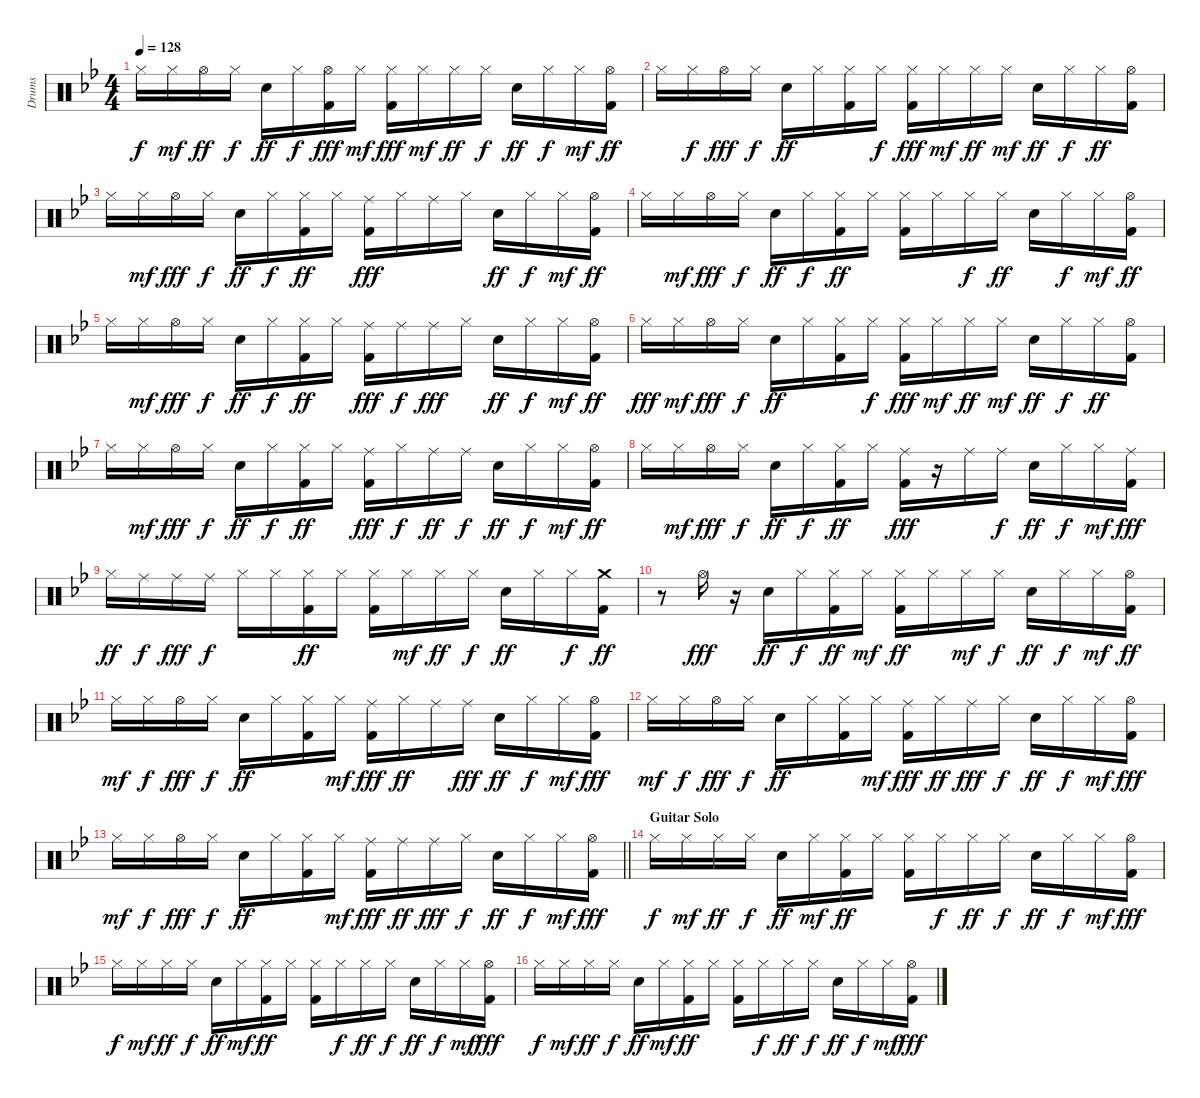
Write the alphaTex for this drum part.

\track ("Drums" "Drums") {instrument percussion}
\staff {score}
\articulation defaults
\ts (4 4)
\tempo 128
\clef neutral
\ks gminor "Hi-Hat (closed)".16{dy f} "Hi-Hat (closed)".16{dy mf} "Hi-Hat (open)".16{dy ff} "Hi-Hat (closed)".16{dy f} "Snare (hit) 2".16{dy ff} "Hi-Hat (closed)".16{dy f}
("Kick (hit) 2" "Hi-Hat (open)").16{dy fff} "Hi-Hat (closed)".16{dy mf} ("Hi-Hat (closed)" "Kick (hit) 2").16{dy fff} "Hi-Hat (closed)".16{dy mf} "Hi-Hat (closed)".16{dy ff} "Hi-Hat (closed)".16{dy f} "Snare (hit) 2".16{dy ff} "Hi-Hat (closed)".16{dy f} "Hi-Hat (closed)".16{dy mf} ("Hi-Hat (open)" "Kick (hit) 2").16{dy ff} |
"Hi-Hat (closed)".16 "Hi-Hat (closed)".16{dy f} "Hi-Hat (open)".16{dy fff} "Hi-Hat (closed)".16{dy f} "Snare (hit) 2".16{dy ff} "Hi-Hat (closed)".16 ("Hi-Hat (closed)" "Kick (hit) 2").16 "Hi-Hat (closed)".16{dy f} ("Hi-Hat (closed)" "Kick (hit) 2").16{dy fff} "Hi-Hat (closed)".16{dy mf} "Hi-Hat (closed)".16{dy ff} "Hi-Hat (closed)".16{dy mf} "Snare (hit) 2".16{dy ff} "Hi-Hat (closed)".16{dy f} "Hi-Hat (closed)".16{dy ff} ("Hi-Hat (open)" "Kick (hit) 2").16 |
"Hi-Hat (closed)".16 "Hi-Hat (closed)".16{dy mf} "Hi-Hat (open)".16{dy fff} "Hi-Hat (closed)".16{dy f} "Snare (hit) 2".16{dy ff} "Hi-Hat (closed)".16{dy f} ("Hi-Hat (closed)" "Kick (hit) 2").16{dy ff} "Hi-Hat (closed)".16 ("Kick (hit) 2" "Ride (middle)").16{dy fff} "Hi-Hat (closed)".16 "Ride (middle)".16 "Hi-Hat (closed)".16 "Snare (hit) 2".16{dy ff} "Hi-Hat (closed)".16{dy f} "Hi-Hat (closed)".16{dy mf} ("Hi-Hat (open)" "Kick (hit) 2").16{dy ff} |
"Hi-Hat (closed)".16 "Hi-Hat (closed)".16{dy mf} "Hi-Hat (open)".16{dy fff} "Hi-Hat (closed)".16{dy f} "Snare (hit) 2".16{dy ff} "Hi-Hat (closed)".16{dy f} ("Hi-Hat (closed)" "Kick (hit) 2").16{dy ff} "Hi-Hat (closed)".16 ("Kick (hit) 2" "Hi-Hat (closed)").16 "Hi-Hat (closed)".16 "Hi-Hat (closed)".16{dy f} "Hi-Hat (closed)".16{dy ff} "Snare (hit) 2".16 "Hi-Hat (closed)".16{dy f} "Hi-Hat (closed)".16{dy mf} ("Hi-Hat (open)" "Kick (hit) 2").16{dy ff} |
"Hi-Hat (closed)".16 "Hi-Hat (closed)".16{dy mf} "Hi-Hat (open)".16{dy fff} "Hi-Hat (closed)".16{dy f} "Snare (hit) 2".16{dy ff} "Hi-Hat (closed)".16{dy f} ("Hi-Hat (closed)" "Kick (hit) 2").16{dy ff} "Hi-Hat (closed)".16 ("Kick (hit) 2" "Ride (middle)").16{dy fff} "Ride (middle)".16{dy f} "Ride (middle)".16{dy fff} "Hi-Hat (closed)".16 "Snare (hit) 2".16{dy ff} "Hi-Hat (closed)".16{dy f} "Hi-Hat (closed)".16{dy mf} ("Hi-Hat (open)" "Kick (hit) 2").16{dy ff} |
"Hi-Hat (closed)".16{dy fff} "Hi-Hat (closed)".16{dy mf} "Hi-Hat (open)".16{dy fff} "Hi-Hat (closed)".16{dy f} "Snare (hit) 2".16{dy ff} "Hi-Hat (closed)".16 ("Hi-Hat (closed)" "Kick (hit) 2").16 "Hi-Hat (closed)".16{dy f} ("Kick (hit) 2" "Hi-Hat (closed)").16{dy fff} "Hi-Hat (closed)".16{dy mf} "Hi-Hat (closed)".16{dy ff} "Hi-Hat (closed)".16{dy mf} "Snare (hit) 2".16{dy ff} "Hi-Hat (closed)".16{dy f} "Hi-Hat (closed)".16{dy ff} ("Hi-Hat (open)" "Kick (hit) 2").16 |
"Hi-Hat (closed)".16 "Hi-Hat (closed)".16{dy mf} "Hi-Hat (open)".16{dy fff} "Hi-Hat (closed)".16{dy f} "Snare (hit) 2".16{dy ff} "Hi-Hat (closed)".16{dy f} ("Hi-Hat (closed)" "Kick (hit) 2").16{dy ff} "Hi-Hat (closed)".16 ("Kick (hit) 2" "Ride (middle)").16{dy fff} "Hi-Hat (closed)".16{dy f} "Ride (middle)".16{dy ff} "Ride (middle)".16{dy f} "Snare (hit) 2".16{dy ff} "Hi-Hat (closed)".16{dy f} "Hi-Hat (closed)".16{dy mf} ("Hi-Hat (open)" "Kick (hit) 2").16{dy ff} |
"Hi-Hat (closed)".16 "Hi-Hat (closed)".16{dy mf} "Hi-Hat (open)".16{dy fff} "Hi-Hat (closed)".16{dy f} "Snare (hit) 2".16{dy ff} "Hi-Hat (closed)".16{dy f} ("Hi-Hat (closed)" "Kick (hit) 2").16{dy ff} "Hi-Hat (closed)".16 ("Kick (hit) 2" "Ride (middle)").16{dy fff} r.16 "Ride (middle)".16 "Ride (middle)".16{dy f} "Snare (hit) 2".16{dy ff} "Hi-Hat (closed)".16{dy f} "Hi-Hat (closed)".16{dy mf} ("Kick (hit) 2" "Ride (middle)").16{dy fff} |
"Hi-Hat (closed)".16{dy ff} "Ride (middle)".16{dy f} "Ride (middle)".16{dy fff} "Ride (middle)".16{dy f} "Hi-Hat (closed)".16 "Hi-Hat (closed)".16 ("Hi-Hat (closed)" "Kick (hit) 2").16{dy ff} "Hi-Hat (closed)".16 ("Kick (hit) 2" "Hi-Hat (closed)").16 "Hi-Hat (closed)".16{dy mf} "Hi-Hat (closed)".16{dy ff} "Hi-Hat (closed)".16{dy f} "Snare (hit) 2".16{dy ff} "Hi-Hat (closed)".16 "Hi-Hat (closed)".16{dy f} ("Crash medium (hit)" "Kick (hit) 2").16{dy ff} |
r.8 "Hi-Hat (open)".16{dy fff} r.16 "Snare (hit) 2".16{dy ff} "Hi-Hat (closed)".16{dy f} ("Kick (hit) 2" "Hi-Hat (closed)").16{dy ff} "Hi-Hat (closed)".16{dy mf} ("Kick (hit) 2" "Hi-Hat (closed)").16{dy ff} "Hi-Hat (closed)".16 "Hi-Hat (closed)".16{dy mf} "Hi-Hat (closed)".16{dy f} "Snare (hit) 2".16{dy ff} "Hi-Hat (closed)".16{dy f} "Hi-Hat (closed)".16{dy mf} ("Hi-Hat (open)" "Kick (hit) 2").16{dy ff} |
"Hi-Hat (closed)".16{dy mf} "Hi-Hat (closed)".16{dy f} "Hi-Hat (open)".16{dy fff} "Hi-Hat (closed)".16{dy f} "Snare (hit) 2".16{dy ff} "Hi-Hat (closed)".16 ("Kick (hit) 2" "Hi-Hat (closed)").16 "Hi-Hat (closed)".16{dy mf} ("Kick (hit) 2" "Ride (middle)").16{dy fff} "Hi-Hat (closed)".16{dy ff} "Ride (middle)".16 "Ride (middle)".16{dy fff} "Snare (hit) 2".16{dy ff} "Hi-Hat (closed)".16{dy f} "Hi-Hat (closed)".16{dy mf} ("Kick (hit) 2" "Hi-Hat (open)").16{dy fff} |
"Hi-Hat (closed)".16{dy mf} "Hi-Hat (closed)".16{dy f} "Hi-Hat (open)".16{dy fff} "Hi-Hat (closed)".16{dy f} "Snare (hit) 2".16{dy ff} "Hi-Hat (closed)".16 ("Kick (hit) 2" "Hi-Hat (closed)").16 "Hi-Hat (closed)".16{dy mf} ("Kick (hit) 2" "Ride (middle)").16{dy fff} "Hi-Hat (closed)".16{dy ff} "Ride (middle)".16{dy fff} "Hi-Hat (closed)".16{dy f} "Snare (hit) 2".16{dy ff} "Hi-Hat (closed)".16{dy f} "Hi-Hat (closed)".16{dy mf} ("Kick (hit) 2" "Hi-Hat (open)").16{dy fff} |
\barLineRight lightlight "Hi-Hat (closed)".16{dy mf} "Hi-Hat (closed)".16{dy f} "Hi-Hat (open)".16{dy fff} "Hi-Hat (closed)".16{dy f} "Snare (hit) 2".16{dy ff} "Hi-Hat (closed)".16
("Kick (hit) 2" "Hi-Hat (closed)").16 "Hi-Hat (closed)".16{dy mf} ("Kick (hit) 2" "Ride (middle)").16{dy fff} "Ride (middle)".16{dy ff} "Ride (middle)".16{dy fff} "Hi-Hat (closed)".16{dy f} "Snare (hit) 2".16{dy ff} "Hi-Hat (closed)".16{dy f} "Hi-Hat (closed)".16{dy mf} ("Kick (hit) 2" "Hi-Hat (open)").16{dy fff} |
\section ("" "Guitar Solo")
"Hi-Hat (closed)".16{dy f} "Hi-Hat (closed)".16{dy mf} "Hi-Hat (closed)".16{dy ff} "Hi-Hat (closed)".16{dy f} "Snare (hit) 2".16{dy ff} "Hi-Hat (closed)".16{dy mf} ("Hi-Hat (closed)" "Kick (hit) 2").16{dy ff} "Hi-Hat (closed)".16 ("Hi-Hat (closed)" "Kick (hit) 2").16 "Hi-Hat (closed)".16{dy f} "Hi-Hat (closed)".16{dy ff} "Hi-Hat (closed)".16{dy f} "Snare (hit) 2".16{dy ff} "Hi-Hat (closed)".16{dy f} "Hi-Hat (closed)".16{dy mf} ("Hi-Hat (open)" "Kick (hit) 2").16{dy fff} |
"Hi-Hat (closed)".16{dy f} "Hi-Hat (closed)".16{dy mf} "Hi-Hat (closed)".16{dy ff} "Hi-Hat (closed)".16{dy f} "Snare (hit) 2".16{dy ff} "Hi-Hat (closed)".16{dy mf} ("Hi-Hat (closed)" "Kick (hit) 2").16{dy ff} "Hi-Hat (closed)".16 ("Hi-Hat (closed)" "Kick (hit) 2").16 "Hi-Hat (closed)".16{dy f} "Hi-Hat (closed)".16{dy ff} "Hi-Hat (closed)".16{dy f} "Snare (hit) 2".16{dy ff} "Hi-Hat (closed)".16{dy f} "Hi-Hat (closed)".16{dy mf} ("Hi-Hat (open)" "Kick (hit) 2").16{dy fff} |
"Hi-Hat (closed)".16{dy f} "Hi-Hat (closed)".16{dy mf} "Hi-Hat (closed)".16{dy ff} "Hi-Hat (closed)".16{dy f} "Snare (hit) 2".16{dy ff} "Hi-Hat (closed)".16{dy mf} ("Hi-Hat (closed)" "Kick (hit) 2").16{dy ff} "Hi-Hat (closed)".16 ("Hi-Hat (closed)" "Kick (hit) 2").16 "Hi-Hat (closed)".16{dy f} "Hi-Hat (closed)".16{dy ff} "Hi-Hat (closed)".16{dy f} "Snare (hit) 2".16{dy ff} "Hi-Hat (closed)".16{dy f} "Hi-Hat (closed)".16{dy mf} ("Hi-Hat (open)" "Kick (hit) 2").16{dy fff}
